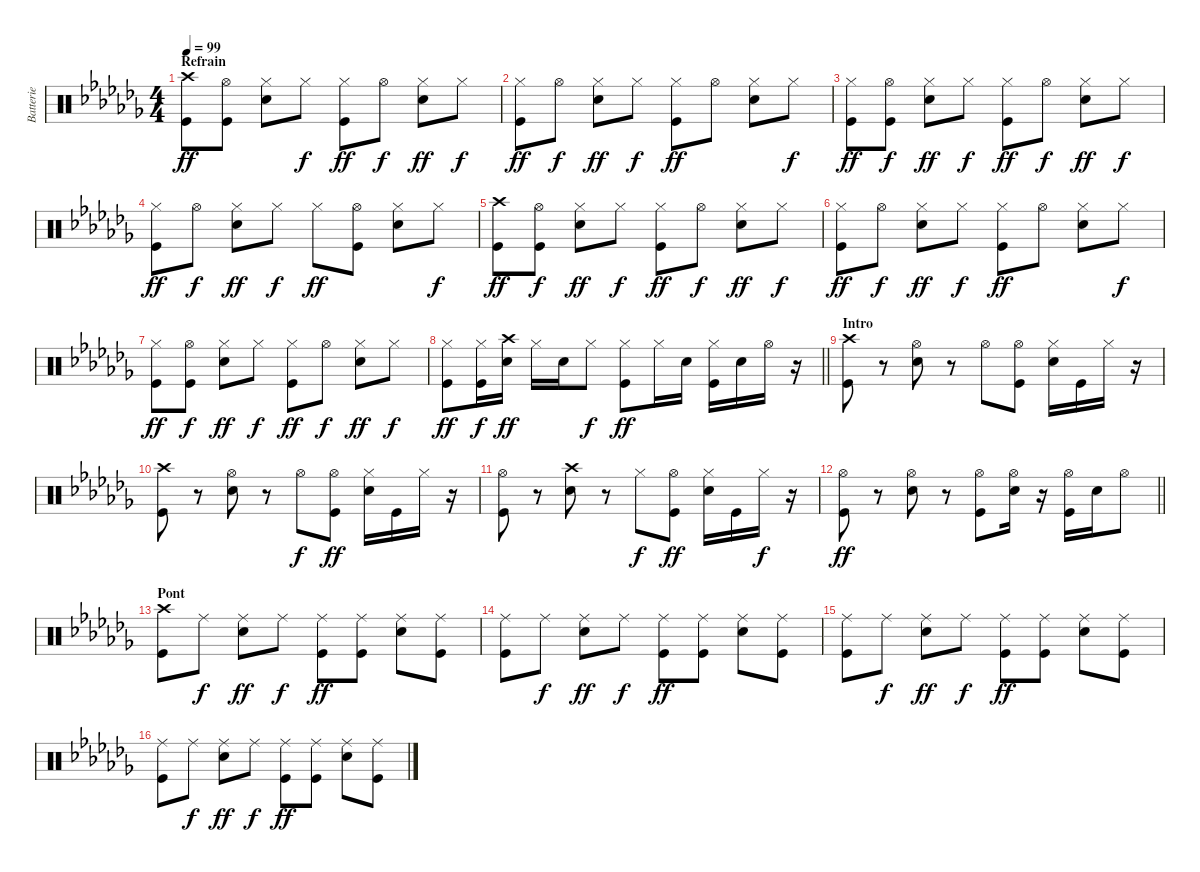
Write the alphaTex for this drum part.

\track ("Batterie" "Batterie") {instrument percussion}
\staff {score}
\articulation defaults
\ts (4 4)
\section ("" "Refrain")
\tempo 99
\clef neutral
\ks cb
("Crash high (hit)" "Kick (hit)").8{dy ff} ("Hi-Hat (open)" "Kick (hit)").8 ("Hi-Hat (closed)" "Snare (hit) 2").8 "Hi-Hat (closed)".8{dy f} ("Hi-Hat (closed)" "Kick (hit)").8{dy ff} "Hi-Hat (open)".8{dy f} ("Hi-Hat (closed)" "Snare (hit) 2").8{dy ff} "Hi-Hat (closed)".8{dy f} |
("Hi-Hat (closed)" "Kick (hit)").8{dy ff} "Hi-Hat (open)".8{dy f} ("Hi-Hat (closed)" "Snare (hit) 2").8{dy ff} "Hi-Hat (closed)".8{dy f} ("Hi-Hat (closed)" "Kick (hit)").8{dy ff} "Hi-Hat (open)".8 ("Hi-Hat (closed)" "Snare (hit) 2").8 "Hi-Hat (closed)".8{dy f} |
("Hi-Hat (closed)" "Kick (hit)").8{dy ff} ("Hi-Hat (open)" "Kick (hit)").8{dy f} ("Hi-Hat (closed)" "Snare (hit) 2").8{dy ff} "Hi-Hat (closed)".8{dy f} ("Hi-Hat (closed)" "Kick (hit)").8{dy ff} "Hi-Hat (open)".8{dy f} ("Hi-Hat (closed)" "Snare (hit) 2").8{dy ff} "Hi-Hat (closed)".8{dy f} |
("Hi-Hat (closed)" "Kick (hit)").8{dy ff} "Hi-Hat (open)".8{dy f} ("Hi-Hat (closed)" "Snare (hit) 2").8{dy ff} "Hi-Hat (closed)".8{dy f} "Hi-Hat (closed)".8{dy ff} ("Hi-Hat (open)" "Kick (hit)").8 ("Hi-Hat (closed)" "Snare (hit) 2").8 "Hi-Hat (closed)".8{dy f} |
("Crash high (hit)" "Kick (hit)").8{dy ff} ("Hi-Hat (open)" "Kick (hit)").8{dy f} ("Hi-Hat (closed)" "Snare (hit) 2").8{dy ff} "Hi-Hat (closed)".8{dy f} ("Hi-Hat (closed)" "Kick (hit)").8{dy ff} "Hi-Hat (open)".8{dy f} ("Hi-Hat (closed)" "Snare (hit) 2").8{dy ff} "Hi-Hat (closed)".8{dy f} |
("Hi-Hat (closed)" "Kick (hit)").8{dy ff} "Hi-Hat (open)".8{dy f} ("Hi-Hat (closed)" "Snare (hit) 2").8{dy ff} "Hi-Hat (closed)".8{dy f} ("Hi-Hat (closed)" "Kick (hit)").8{dy ff} "Hi-Hat (open)".8 ("Hi-Hat (closed)" "Snare (hit) 2").8 "Hi-Hat (closed)".8{dy f} |
("Hi-Hat (closed)" "Kick (hit)").8{dy ff} ("Hi-Hat (open)" "Kick (hit)").8{dy f} ("Hi-Hat (closed)" "Snare (hit) 2").8{dy ff} "Hi-Hat (closed)".8{dy f} ("Hi-Hat (closed)" "Kick (hit)").8{dy ff} "Hi-Hat (open)".8{dy f} ("Hi-Hat (closed)" "Snare (hit) 2").8{dy ff} "Hi-Hat (closed)".8{dy f} |
\barLineRight lightlight
("Hi-Hat (closed)" "Kick (hit)").8{dy ff} ("Hi-Hat (closed)" "Kick (hit)").16{dy f} ("Crash high (hit)" "Snare (hit) 2").16{dy ff} "Hi-Hat (closed)".16 "Snare (hit) 2".16 "Hi-Hat (closed)".8{dy f} ("Hi-Hat (closed)" "Kick (hit)").8{dy ff} "Hi-Hat (closed)".16 "Snare (hit) 2".16 ("Hi-Hat (closed)" "Kick (hit)").16 "Snare (hit) 2".16 "Hi-Hat (open)".16 r.16 |
\section ("" "Intro")
("Crash high (hit)" "Kick (hit)").8 r.8 ("Hi-Hat (open)" "Snare (hit) 2").8 r.8 "Hi-Hat (open)".8 ("Hi-Hat (open)" "Kick (hit)").8 ("Hi-Hat (closed)" "Snare (hit) 2").16 "Kick (hit)".16 "Hi-Hat (closed)".16 r.16 |
("Crash high (hit)" "Kick (hit)").8 r.8 ("Hi-Hat (open)" "Snare (hit) 2").8 r.8 "Hi-Hat (open)".8{dy f} ("Hi-Hat (open)" "Kick (hit)").8{dy ff} ("Hi-Hat (closed)" "Snare (hit) 2").16 "Kick (hit)".16 "Hi-Hat (closed)".16 r.16 |
("Hi-Hat (open)" "Kick (hit)").8 r.8 ("Crash high (hit)" "Snare (hit) 2").8 r.8 "Hi-Hat (closed)".8{dy f} ("Hi-Hat (open)" "Kick (hit)").8{dy ff} ("Hi-Hat (closed)" "Snare (hit) 2").16 "Kick (hit)".16 "Hi-Hat (closed)".16{dy f} r.16 |
\barLineRight lightlight
("Hi-Hat (open)" "Kick (hit)").8{dy ff} r.8 ("Hi-Hat (open)" "Snare (hit) 2").8 r.8 ("Hi-Hat (open)" "Kick (hit)").8 ("Hi-Hat (open)" "Snare (hit) 2").16 r.16 ("Hi-Hat (open)" "Kick (hit)").16 "Snare (hit) 2".16 "Hi-Hat (open)".8 |
\section ("" "Pont")
("Crash high (hit)" "Kick (hit)").8 "Ride (middle)".8{dy f} ("Ride (middle)" "Snare (hit) 2").8{dy ff} "Ride (middle)".8{dy f} ("Ride (middle)" "Kick (hit)").8{dy ff} ("Ride (middle)" "Kick (hit)").8 ("Ride (middle)" "Snare (hit) 2").8 ("Ride (middle)" "Kick (hit)").8 |
("Ride (middle)" "Kick (hit)").8 "Ride (middle)".8{dy f} ("Ride (middle)" "Snare (hit) 2").8{dy ff} "Ride (middle)".8{dy f} ("Ride (middle)" "Kick (hit)").8{dy ff} ("Ride (middle)" "Kick (hit)").8 ("Ride (middle)" "Snare (hit) 2").8 ("Ride (middle)" "Kick (hit)").8 |
("Ride (middle)" "Kick (hit)").8 "Ride (middle)".8{dy f} ("Ride (middle)" "Snare (hit) 2").8{dy ff} "Ride (middle)".8{dy f} ("Ride (middle)" "Kick (hit)").8{dy ff} ("Ride (middle)" "Kick (hit)").8 ("Ride (middle)" "Snare (hit) 2").8 ("Ride (middle)" "Kick (hit)").8 |
("Ride (middle)" "Kick (hit)").8 "Ride (middle)".8{dy f} ("Ride (middle)" "Snare (hit) 2").8{dy ff} "Ride (middle)".8{dy f} ("Ride (middle)" "Kick (hit)").8{dy ff} ("Ride (middle)" "Kick (hit)").8 ("Ride (middle)" "Snare (hit) 2").8 ("Ride (middle)" "Kick (hit)").8
